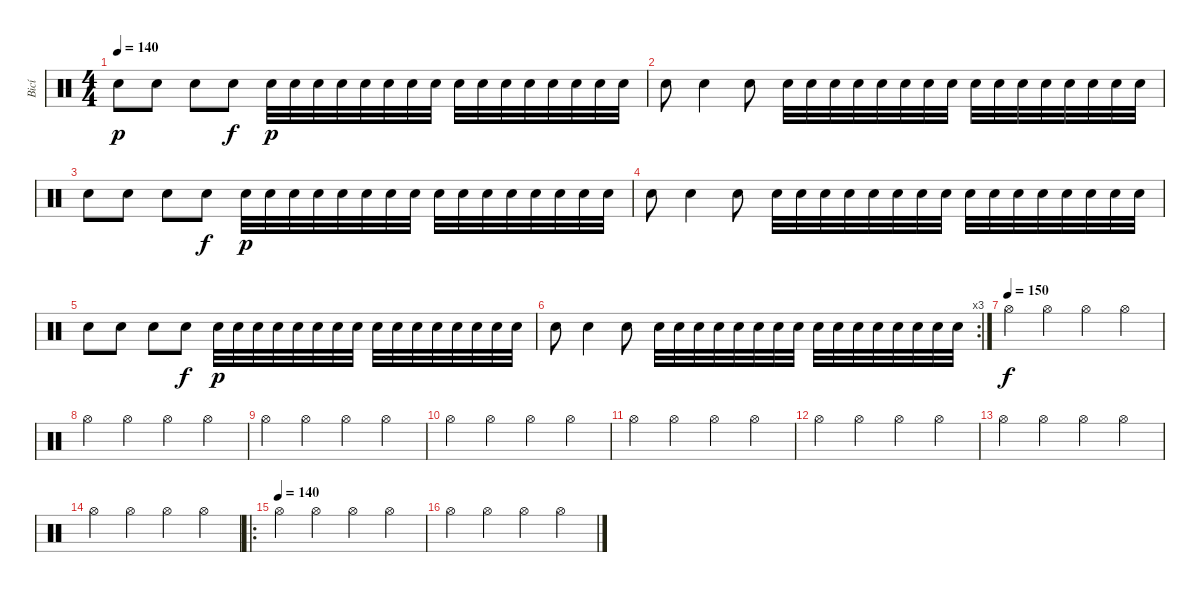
\track ("Bicí" "Bicí") {instrument percussion}
\staff {score}
\articulation defaults
\ts (4 4)
\tempo 140
\clef neutral
\ks c "Electric Snare (hit)".8{dy p} "Electric Snare (hit)".8 "Electric Snare (hit)".8 "Electric Snare (hit)".8{dy f} "Electric Snare (hit)".32{dy p} "Electric Snare (hit)".32 "Electric Snare (hit)".32 "Electric Snare (hit)".32 "Electric Snare (hit)".32 "Electric Snare (hit)".32 "Electric Snare (hit)".32 "Electric Snare (hit)".32 "Electric Snare (hit)".32 "Electric Snare (hit)".32 "Electric Snare (hit)".32 "Electric Snare (hit)".32 "Electric Snare (hit)".32 "Electric Snare (hit)".32 "Electric Snare (hit)".32 "Electric Snare (hit)".32
|
"Electric Snare (hit)".8 "Electric Snare (hit)".4 "Electric Snare (hit)".8 "Electric Snare (hit)".32 "Electric Snare (hit)".32 "Electric Snare (hit)".32 "Electric Snare (hit)".32 "Electric Snare (hit)".32 "Electric Snare (hit)".32 "Electric Snare (hit)".32 "Electric Snare (hit)".32 "Electric Snare (hit)".32 "Electric Snare (hit)".32 "Electric Snare (hit)".32 "Electric Snare (hit)".32 "Electric Snare (hit)".32 "Electric Snare (hit)".32 "Electric Snare (hit)".32 "Electric Snare (hit)".32 |
"Electric Snare (hit)".8 "Electric Snare (hit)".8 "Electric Snare (hit)".8 "Electric Snare (hit)".8{dy f} "Electric Snare (hit)".32{dy p} "Electric Snare (hit)".32 "Electric Snare (hit)".32 "Electric Snare (hit)".32 "Electric Snare (hit)".32 "Electric Snare (hit)".32 "Electric Snare (hit)".32 "Electric Snare (hit)".32 "Electric Snare (hit)".32 "Electric Snare (hit)".32 "Electric Snare (hit)".32 "Electric Snare (hit)".32 "Electric Snare (hit)".32 "Electric Snare (hit)".32 "Electric Snare (hit)".32 "Electric Snare (hit)".32 |
"Electric Snare (hit)".8 "Electric Snare (hit)".4 "Electric Snare (hit)".8 "Electric Snare (hit)".32 "Electric Snare (hit)".32 "Electric Snare (hit)".32 "Electric Snare (hit)".32 "Electric Snare (hit)".32 "Electric Snare (hit)".32 "Electric Snare (hit)".32 "Electric Snare (hit)".32 "Electric Snare (hit)".32 "Electric Snare (hit)".32 "Electric Snare (hit)".32 "Electric Snare (hit)".32 "Electric Snare (hit)".32 "Electric Snare (hit)".32 "Electric Snare (hit)".32 "Electric Snare (hit)".32 |
"Electric Snare (hit)".8 "Electric Snare (hit)".8 "Electric Snare (hit)".8 "Electric Snare (hit)".8{dy f} "Electric Snare (hit)".32{dy p} "Electric Snare (hit)".32 "Electric Snare (hit)".32 "Electric Snare (hit)".32 "Electric Snare (hit)".32 "Electric Snare (hit)".32 "Electric Snare (hit)".32 "Electric Snare (hit)".32 "Electric Snare (hit)".32 "Electric Snare (hit)".32 "Electric Snare (hit)".32 "Electric Snare (hit)".32 "Electric Snare (hit)".32 "Electric Snare (hit)".32 "Electric Snare (hit)".32 "Electric Snare (hit)".32 |
\rc 3 "Electric Snare (hit)".8 "Electric Snare (hit)".4 "Electric Snare (hit)".8 "Electric Snare (hit)".32 "Electric Snare (hit)".32 "Electric Snare (hit)".32 "Electric Snare (hit)".32 "Electric Snare (hit)".32 "Electric Snare (hit)".32 "Electric Snare (hit)".32 "Electric Snare (hit)".32 "Electric Snare (hit)".32 "Electric Snare (hit)".32 "Electric Snare (hit)".32 "Electric Snare (hit)".32 "Electric Snare (hit)".32 "Electric Snare (hit)".32 "Electric Snare (hit)".32 "Electric Snare (hit)".32
|
\tempo (150)
"Hi-Hat (open)".4{dy f} "Hi-Hat (open)".4 "Hi-Hat (open)".4 "Hi-Hat (open)".4 |
"Hi-Hat (open)".4 "Hi-Hat (open)".4 "Hi-Hat (open)".4 "Hi-Hat (open)".4 |
"Hi-Hat (open)".4 "Hi-Hat (open)".4 "Hi-Hat (open)".4 "Hi-Hat (open)".4 |
"Hi-Hat (open)".4 "Hi-Hat (open)".4 "Hi-Hat (open)".4 "Hi-Hat (open)".4 |
"Hi-Hat (open)".4 "Hi-Hat (open)".4 "Hi-Hat (open)".4 "Hi-Hat (open)".4 |
"Hi-Hat (open)".4 "Hi-Hat (open)".4 "Hi-Hat (open)".4 "Hi-Hat (open)".4 |
"Hi-Hat (open)".4 "Hi-Hat (open)".4 "Hi-Hat (open)".4 "Hi-Hat (open)".4 |
"Hi-Hat (open)".4 "Hi-Hat (open)".4 "Hi-Hat (open)".4 "Hi-Hat (open)".4 |
\ro
\tempo (140)
"Hi-Hat (open)".4 "Hi-Hat (open)".4 "Hi-Hat (open)".4 "Hi-Hat (open)".4 |
"Hi-Hat (open)".4 "Hi-Hat (open)".4 "Hi-Hat (open)".4 "Hi-Hat (open)".4
